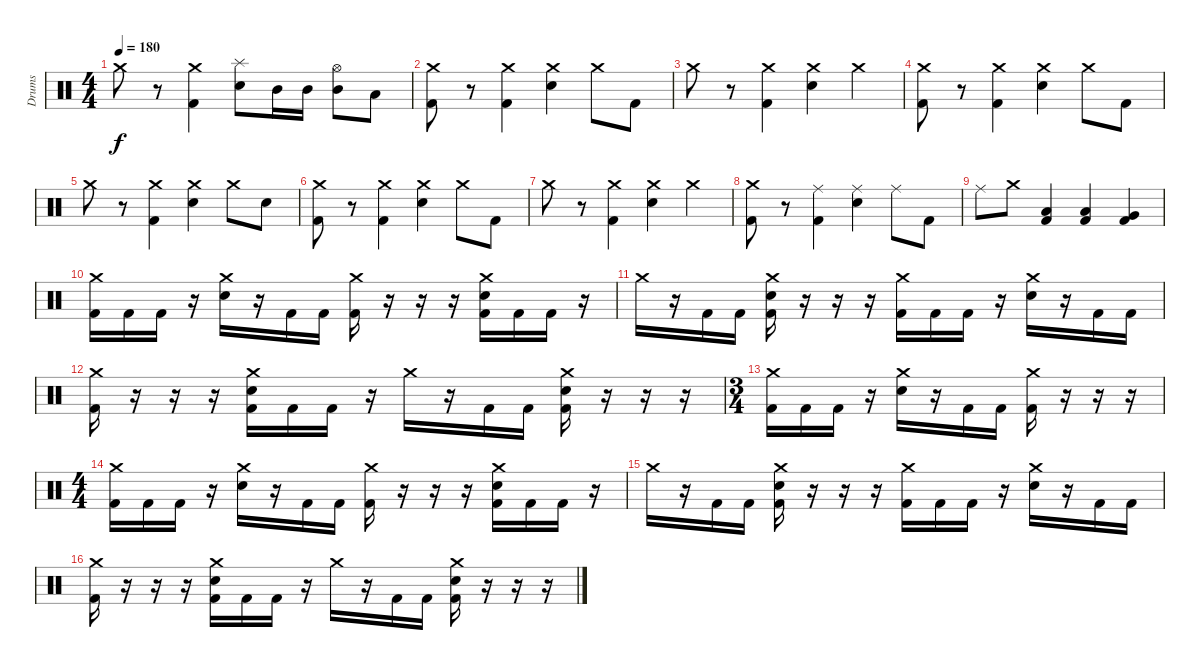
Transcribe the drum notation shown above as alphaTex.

\track ("Drums" "Drums") {instrument percussion}
\staff {score}
\articulation defaults
\ts (4 4)
\tempo 180
\clef neutral
\ks c "Crash medium (hit)".8{dy f}
r.8 ("Crash medium (hit)" "Kick (hit) 2").4 ("Splash (hit)" "Electric Snare (hit)").8 "Mid Tom (hit)".16 "Mid Tom (hit)".16 ("Hi-Hat (open)" "Mid Tom (hit)").8 "Low Tom (hit)".8 |
("Crash medium (hit)" "Kick (hit) 2").8 r.8 ("Crash medium (hit)" "Kick (hit) 2").4 ("Crash medium (hit)" "Electric Snare (hit)").4 "Crash medium (hit)".8 "Kick (hit) 2".8 |
"Crash medium (hit)".8 r.8 ("Crash medium (hit)" "Kick (hit) 2").4 ("Crash medium (hit)" "Electric Snare (hit)").4 "Crash medium (hit)".4 |
("Crash medium (hit)" "Kick (hit) 2").8 r.8 ("Crash medium (hit)" "Kick (hit) 2").4 ("Crash medium (hit)" "Electric Snare (hit)").4 "Crash medium (hit)".8 "Kick (hit) 2".8 |
"Crash medium (hit)".8 r.8 ("Crash medium (hit)" "Kick (hit) 2").4 ("Crash medium (hit)" "Electric Snare (hit)").4 "Crash medium (hit)".8 "Electric Snare (hit)".8 |
("Crash medium (hit)" "Kick (hit) 2").8 r.8 ("Crash medium (hit)" "Kick (hit) 2").4 ("Crash medium (hit)" "Electric Snare (hit)").4 "Crash medium (hit)".8 "Kick (hit) 2".8 |
"Crash medium (hit)".8 r.8 ("Crash medium (hit)" "Kick (hit) 2").4 ("Crash medium (hit)" "Electric Snare (hit)").4 "Crash medium (hit)".4 |
("Crash medium (hit)" "Kick (hit) 2").8 r.8 ("Ride (middle)" "Kick (hit) 2").4 ("Ride (middle)" "Electric Snare (hit)").4 "Ride (middle)".8 "Kick (hit) 2".8 |
"Ride (middle)".8 "Crash medium (hit)".8 ("Low Tom (hit)" "Kick (hit) 2").4 ("Low Tom (hit)" "Kick (hit) 2").4 ("Very Low Tom (hit)" "Kick (hit) 2").4 |
("Crash medium (hit)" "Kick (hit) 2").16 "Kick (hit) 2".16 "Kick (hit) 2".16 r.16 ("Crash medium (hit)" "Electric Snare (hit)").16 r.16 "Kick (hit) 2".16 "Kick (hit) 2".16 ("Crash medium (hit)" "Kick (hit) 2").16 r.16 r.16 r.16 ("Crash medium (hit)" "Electric Snare (hit)" "Kick (hit) 2").16 "Kick (hit) 2".16 "Kick (hit) 2".16 r.16 |
"Crash medium (hit)".16 r.16 "Kick (hit) 2".16 "Kick (hit) 2".16 ("Crash medium (hit)" "Electric Snare (hit)" "Kick (hit) 2").16 r.16 r.16 r.16 ("Crash medium (hit)" "Kick (hit) 2").16 "Kick (hit) 2".16 "Kick (hit) 2".16 r.16 ("Crash medium (hit)" "Electric Snare (hit)").16 r.16 "Kick (hit) 2".16 "Kick (hit) 2".16 |
("Crash medium (hit)" "Kick (hit) 2").16 r.16 r.16 r.16 ("Crash medium (hit)" "Electric Snare (hit)" "Kick (hit) 2").16 "Kick (hit) 2".16 "Kick (hit) 2".16 r.16 "Crash medium (hit)".16 r.16 "Kick (hit) 2".16 "Kick (hit) 2".16 ("Crash medium (hit)" "Electric Snare (hit)" "Kick (hit) 2").16 r.16 r.16 r.16 |
\ts (3 4)
("Crash medium (hit)" "Kick (hit) 2").16 "Kick (hit) 2".16 "Kick (hit) 2".16 r.16 ("Crash medium (hit)" "Electric Snare (hit)").16 r.16 "Kick (hit) 2".16 "Kick (hit) 2".16 ("Crash medium (hit)" "Kick (hit) 2").16 r.16 r.16 r.16 |
\ts (4 4)
("Crash medium (hit)" "Kick (hit) 2").16 "Kick (hit) 2".16 "Kick (hit) 2".16 r.16 ("Crash medium (hit)" "Electric Snare (hit)").16 r.16 "Kick (hit) 2".16 "Kick (hit) 2".16 ("Crash medium (hit)" "Kick (hit) 2").16 r.16 r.16 r.16 ("Crash medium (hit)" "Electric Snare (hit)" "Kick (hit) 2").16 "Kick (hit) 2".16 "Kick (hit) 2".16 r.16 |
"Crash medium (hit)".16 r.16 "Kick (hit) 2".16 "Kick (hit) 2".16 ("Crash medium (hit)" "Electric Snare (hit)" "Kick (hit) 2").16 r.16 r.16 r.16 ("Crash medium (hit)" "Kick (hit) 2").16 "Kick (hit) 2".16 "Kick (hit) 2".16 r.16 ("Crash medium (hit)" "Electric Snare (hit)").16 r.16 "Kick (hit) 2".16 "Kick (hit) 2".16 |
("Crash medium (hit)" "Kick (hit) 2").16 r.16 r.16 r.16 ("Crash medium (hit)" "Electric Snare (hit)" "Kick (hit) 2").16 "Kick (hit) 2".16 "Kick (hit) 2".16 r.16 "Crash medium (hit)".16 r.16 "Kick (hit) 2".16 "Kick (hit) 2".16 ("Crash medium (hit)" "Electric Snare (hit)" "Kick (hit) 2").16 r.16 r.16 r.16
